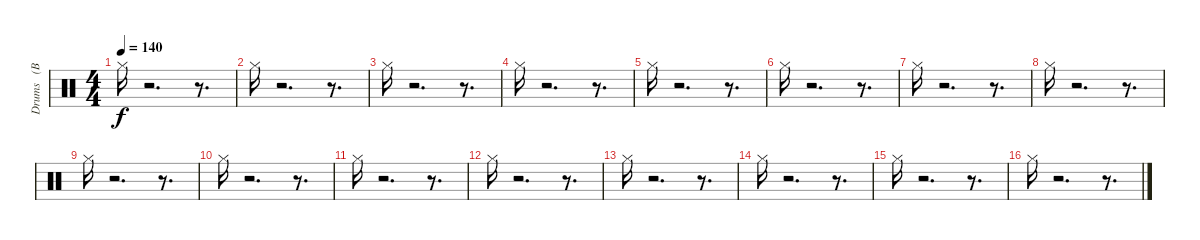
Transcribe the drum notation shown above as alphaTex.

\track ("Drums   (BB)" "Drums   (B") {instrument percussion}
\staff {score}
\articulation defaults
\ts (4 4)
\tempo 140
\clef neutral
\ks c "Hi-Hat (closed)".16{dy f}
r.2{d} r.8{d} |
"Hi-Hat (closed)".16 r.2{d} r.8{d} |
"Hi-Hat (closed)".16 r.2{d} r.8{d} |
"Hi-Hat (closed)".16 r.2{d} r.8{d} |
"Hi-Hat (closed)".16 r.2{d} r.8{d} |
"Hi-Hat (closed)".16 r.2{d} r.8{d} |
"Hi-Hat (closed)".16 r.2{d} r.8{d} |
"Hi-Hat (closed)".16 r.2{d} r.8{d} |
"Hi-Hat (closed)".16 r.2{d} r.8{d} |
"Hi-Hat (closed)".16 r.2{d} r.8{d} |
"Hi-Hat (closed)".16 r.2{d} r.8{d} |
"Hi-Hat (closed)".16 r.2{d} r.8{d} |
"Hi-Hat (closed)".16 r.2{d} r.8{d} |
"Hi-Hat (closed)".16 r.2{d} r.8{d} |
"Hi-Hat (closed)".16 r.2{d} r.8{d} |
"Hi-Hat (closed)".16 r.2{d} r.8{d}
